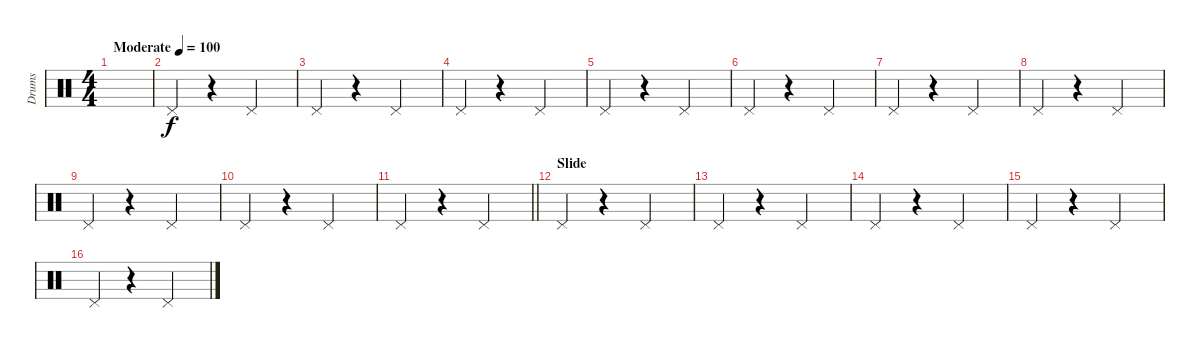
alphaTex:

\track ("Drums" "Drums") {instrument percussion}
\staff {score}
\articulation defaults
\ts (4 4)
\tempo (100 "Moderate")
\clef neutral
\ks c
|
"Pedal Hi-Hat (hit)".4 r.4 "Pedal Hi-Hat (hit)".2 |
"Pedal Hi-Hat (hit)".4 r.4 "Pedal Hi-Hat (hit)".2 |
"Pedal Hi-Hat (hit)".4 r.4 "Pedal Hi-Hat (hit)".2 |
"Pedal Hi-Hat (hit)".4 r.4 "Pedal Hi-Hat (hit)".2 |
"Pedal Hi-Hat (hit)".4 r.4 "Pedal Hi-Hat (hit)".2 |
"Pedal Hi-Hat (hit)".4 r.4 "Pedal Hi-Hat (hit)".2 |
"Pedal Hi-Hat (hit)".4 r.4 "Pedal Hi-Hat (hit)".2 |
"Pedal Hi-Hat (hit)".4 r.4 "Pedal Hi-Hat (hit)".2 |
"Pedal Hi-Hat (hit)".4 r.4 "Pedal Hi-Hat (hit)".2 |
\barLineRight lightlight "Pedal Hi-Hat (hit)".4
r.4 "Pedal Hi-Hat (hit)".2 |
\section ("" "Slide")
"Pedal Hi-Hat (hit)".4 r.4 "Pedal Hi-Hat (hit)".2 |
"Pedal Hi-Hat (hit)".4 r.4 "Pedal Hi-Hat (hit)".2 |
"Pedal Hi-Hat (hit)".4 r.4 "Pedal Hi-Hat (hit)".2 |
"Pedal Hi-Hat (hit)".4 r.4 "Pedal Hi-Hat (hit)".2 |
"Pedal Hi-Hat (hit)".4 r.4 "Pedal Hi-Hat (hit)".2
